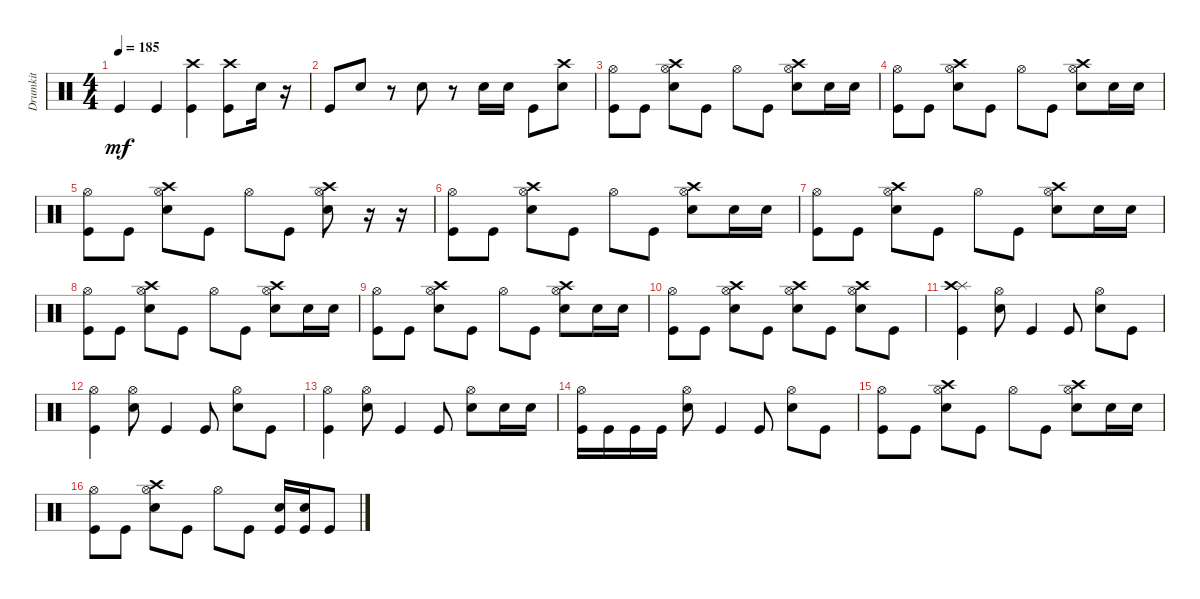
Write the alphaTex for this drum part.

\track ("Drumkit" "Drumkit") {instrument percussion}
\staff {score}
\articulation defaults
\ts (4 4)
\tempo 185
\clef neutral
\ks c "Kick (hit)".4{dy mf} "Kick (hit)".4
("Kick (hit)" "Crash high (hit)").4 ("Kick (hit)" "Crash high (hit)").8 "Snare (hit) 2".16 r.16 |
"Kick (hit)".8 "Snare (hit) 2".8 r.8 "Snare (hit) 2".8 r.8 "Snare (hit) 2".16 "Snare (hit) 2".16 "Kick (hit)".8 ("Snare (hit) 2" "Crash high (hit)").8 |
("Kick (hit)" "Hi-Hat (open)").8 "Kick (hit)".8 ("Snare (hit) 2" "Crash high (hit)" "Hi-Hat (open)").8 "Kick (hit)".8 "Hi-Hat (open)".8 "Kick (hit)".8 ("Snare (hit) 2" "Crash high (hit)" "Hi-Hat (open)").8 "Snare (hit) 2".16 "Snare (hit) 2".16 |
("Kick (hit)" "Hi-Hat (open)").8 "Kick (hit)".8 ("Snare (hit) 2" "Crash high (hit)" "Hi-Hat (open)").8 "Kick (hit)".8 "Hi-Hat (open)".8 "Kick (hit)".8 ("Snare (hit) 2" "Crash high (hit)" "Hi-Hat (open)").8 "Snare (hit) 2".16 "Snare (hit) 2".16 |
("Kick (hit)" "Hi-Hat (open)").8 "Kick (hit)".8 ("Snare (hit) 2" "Crash high (hit)" "Hi-Hat (open)").8 "Kick (hit)".8 "Hi-Hat (open)".8 "Kick (hit)".8 ("Snare (hit) 2" "Crash high (hit)" "Hi-Hat (open)").8 r.16 r.16 |
("Kick (hit)" "Hi-Hat (open)").8 "Kick (hit)".8 ("Snare (hit) 2" "Crash high (hit)" "Hi-Hat (open)").8 "Kick (hit)".8 "Hi-Hat (open)".8 "Kick (hit)".8 ("Snare (hit) 2" "Crash high (hit)" "Hi-Hat (open)").8 "Snare (hit) 2".16 "Snare (hit) 2".16 |
("Kick (hit)" "Hi-Hat (open)").8 "Kick (hit)".8 ("Snare (hit) 2" "Crash high (hit)" "Hi-Hat (open)").8 "Kick (hit)".8 "Hi-Hat (open)".8 "Kick (hit)".8 ("Snare (hit) 2" "Crash high (hit)" "Hi-Hat (open)").8 "Snare (hit) 2".16 "Snare (hit) 2".16 |
("Kick (hit)" "Hi-Hat (open)").8 "Kick (hit)".8 ("Snare (hit) 2" "Crash high (hit)" "Hi-Hat (open)").8 "Kick (hit)".8 "Hi-Hat (open)".8 "Kick (hit)".8 ("Snare (hit) 2" "Crash high (hit)" "Hi-Hat (open)").8 "Snare (hit) 2".16 "Snare (hit) 2".16 |
("Kick (hit)" "Hi-Hat (open)").8 "Kick (hit)".8 ("Snare (hit) 2" "Crash high (hit)" "Hi-Hat (open)").8 "Kick (hit)".8 "Hi-Hat (open)".8 "Kick (hit)".8 ("Snare (hit) 2" "Crash high (hit)" "Hi-Hat (open)").8 "Snare (hit) 2".16 "Snare (hit) 2".16 |
("Kick (hit)" "Hi-Hat (open)").8 "Kick (hit)".8 ("Snare (hit) 2" "Crash high (hit)" "Hi-Hat (open)").8 "Kick (hit)".8 ("Snare (hit) 2" "Crash high (hit)" "Hi-Hat (open)").8 "Kick (hit)".8 ("Snare (hit) 2" "Hi-Hat (open)" "Crash high (hit)").8 "Kick (hit)".8 |
("Kick (hit)" "Splash (hit)" "Crash high (hit)").4 ("Snare (hit) 2" "Hi-Hat (open)").8 "Kick (hit)".4 "Kick (hit)".8 ("Snare (hit) 2" "Hi-Hat (open)").8 "Kick (hit)".8 |
("Kick (hit)" "Hi-Hat (open)").4 ("Snare (hit) 2" "Hi-Hat (open)").8 "Kick (hit)".4 "Kick (hit)".8 ("Snare (hit) 2" "Hi-Hat (open)").8 "Kick (hit)".8 |
("Kick (hit)" "Hi-Hat (open)").4 ("Snare (hit) 2" "Hi-Hat (open)").8 "Kick (hit)".4 "Kick (hit)".8 ("Snare (hit) 2" "Hi-Hat (open)").8 "Snare (hit) 2".16 "Snare (hit) 2".16 |
("Kick (hit)" "Hi-Hat (open)").16 "Kick (hit)".16 "Kick (hit)".16 "Kick (hit)".16 ("Snare (hit) 2" "Hi-Hat (open)").8 "Kick (hit)".4 "Kick (hit)".8 ("Snare (hit) 2" "Hi-Hat (open)").8 "Kick (hit)".8 |
("Kick (hit)" "Hi-Hat (open)").8 "Kick (hit)".8 ("Snare (hit) 2" "Crash high (hit)" "Hi-Hat (open)").8 "Kick (hit)".8 "Hi-Hat (open)".8 "Kick (hit)".8 ("Snare (hit) 2" "Crash high (hit)" "Hi-Hat (open)").8 "Snare (hit) 2".16 "Snare (hit) 2".16 |
("Kick (hit)" "Hi-Hat (open)").8 "Kick (hit)".8 ("Snare (hit) 2" "Crash high (hit)" "Hi-Hat (open)").8 "Kick (hit)".8 "Hi-Hat (open)".8 "Kick (hit)".8 ("Kick (hit)" "Snare (hit) 2").16 ("Kick (hit)" "Snare (hit) 2").16 "Kick (hit)".8
